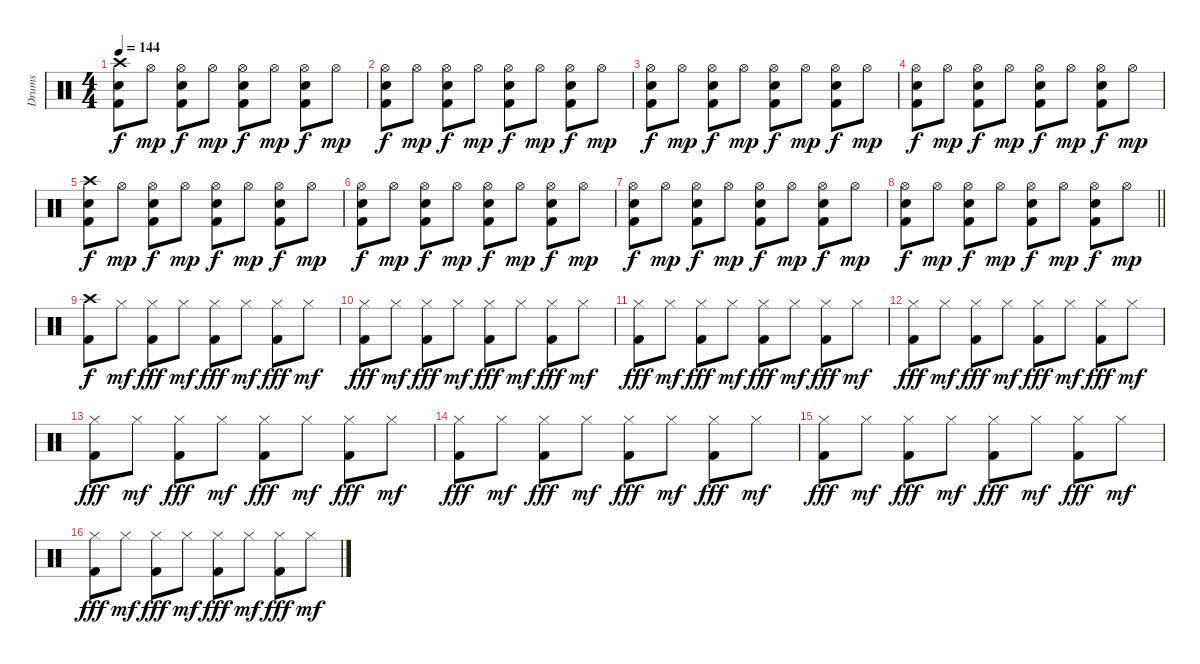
\track ("Drums" "Drums") {instrument percussion}
\staff {score}
\articulation defaults
\ts (4 4)
\tempo 144
\clef neutral
\ks c
("Crash high (hit)" "Snare (hit) 2" "Kick (hit) 2").8{dy f} "Hi-Hat (open)".8{dy mp} ("Hi-Hat (open)" "Snare (hit) 2" "Kick (hit) 2").8{dy f} "Hi-Hat (open)".8{dy mp} ("Hi-Hat (open)" "Snare (hit) 2" "Kick (hit) 2").8{dy f} "Hi-Hat (open)".8{dy mp} ("Hi-Hat (open)" "Snare (hit) 2" "Kick (hit) 2").8{dy f} "Hi-Hat (open)".8{dy mp} |
("Hi-Hat (open)" "Snare (hit) 2" "Kick (hit) 2").8{dy f} "Hi-Hat (open)".8{dy mp} ("Hi-Hat (open)" "Snare (hit) 2" "Kick (hit) 2").8{dy f} "Hi-Hat (open)".8{dy mp} ("Hi-Hat (open)" "Snare (hit) 2" "Kick (hit) 2").8{dy f} "Hi-Hat (open)".8{dy mp} ("Hi-Hat (open)" "Snare (hit) 2" "Kick (hit) 2").8{dy f} "Hi-Hat (open)".8{dy mp} |
("Hi-Hat (open)" "Snare (hit) 2" "Kick (hit) 2").8{dy f} "Hi-Hat (open)".8{dy mp} ("Hi-Hat (open)" "Snare (hit) 2" "Kick (hit) 2").8{dy f} "Hi-Hat (open)".8{dy mp} ("Hi-Hat (open)" "Snare (hit) 2" "Kick (hit) 2").8{dy f} "Hi-Hat (open)".8{dy mp} ("Hi-Hat (open)" "Snare (hit) 2" "Kick (hit) 2").8{dy f} "Hi-Hat (open)".8{dy mp} |
("Hi-Hat (open)" "Snare (hit) 2" "Kick (hit) 2").8{dy f} "Hi-Hat (open)".8{dy mp} ("Hi-Hat (open)" "Snare (hit) 2" "Kick (hit) 2").8{dy f} "Hi-Hat (open)".8{dy mp} ("Hi-Hat (open)" "Snare (hit) 2" "Kick (hit) 2").8{dy f} "Hi-Hat (open)".8{dy mp} ("Hi-Hat (open)" "Snare (hit) 2" "Kick (hit) 2").8{dy f} "Hi-Hat (open)".8{dy mp} |
("Crash high (hit)" "Snare (hit) 2" "Kick (hit) 2").8{dy f} "Hi-Hat (open)".8{dy mp} ("Hi-Hat (open)" "Snare (hit) 2" "Kick (hit) 2").8{dy f} "Hi-Hat (open)".8{dy mp} ("Hi-Hat (open)" "Snare (hit) 2" "Kick (hit) 2").8{dy f} "Hi-Hat (open)".8{dy mp} ("Hi-Hat (open)" "Snare (hit) 2" "Kick (hit) 2").8{dy f} "Hi-Hat (open)".8{dy mp} |
("Hi-Hat (open)" "Snare (hit) 2" "Kick (hit) 2").8{dy f} "Hi-Hat (open)".8{dy mp} ("Hi-Hat (open)" "Snare (hit) 2" "Kick (hit) 2").8{dy f} "Hi-Hat (open)".8{dy mp} ("Hi-Hat (open)" "Snare (hit) 2" "Kick (hit) 2").8{dy f} "Hi-Hat (open)".8{dy mp} ("Hi-Hat (open)" "Snare (hit) 2" "Kick (hit) 2").8{dy f} "Hi-Hat (open)".8{dy mp} |
("Hi-Hat (open)" "Snare (hit) 2" "Kick (hit) 2").8{dy f} "Hi-Hat (open)".8{dy mp} ("Hi-Hat (open)" "Snare (hit) 2" "Kick (hit) 2").8{dy f} "Hi-Hat (open)".8{dy mp} ("Hi-Hat (open)" "Snare (hit) 2" "Kick (hit) 2").8{dy f} "Hi-Hat (open)".8{dy mp} ("Hi-Hat (open)" "Snare (hit) 2" "Kick (hit) 2").8{dy f} "Hi-Hat (open)".8{dy mp} |
\barLineRight lightlight
("Hi-Hat (open)" "Snare (hit) 2" "Kick (hit) 2").8{dy f} "Hi-Hat (open)".8{dy mp} ("Hi-Hat (open)" "Snare (hit) 2" "Kick (hit) 2").8{dy f} "Hi-Hat (open)".8{dy mp} ("Hi-Hat (open)" "Snare (hit) 2" "Kick (hit) 2").8{dy f} "Hi-Hat (open)".8{dy mp} ("Hi-Hat (open)" "Snare (hit) 2" "Kick (hit) 2").8{dy f} "Hi-Hat (open)".8{dy mp} |
("Crash high (hit)" "Kick (hit) 2").8{dy f} "Hi-Hat (closed)".8{dy mf} ("Hi-Hat (closed)" "Kick (hit) 2").8{dy fff} "Hi-Hat (closed)".8{dy mf} ("Hi-Hat (closed)" "Kick (hit) 2").8{dy fff} "Hi-Hat (closed)".8{dy mf} ("Hi-Hat (closed)" "Kick (hit) 2").8{dy fff} "Hi-Hat (closed)".8{dy mf} |
("Hi-Hat (closed)" "Kick (hit) 2").8{dy fff} "Hi-Hat (closed)".8{dy mf} ("Hi-Hat (closed)" "Kick (hit) 2").8{dy fff} "Hi-Hat (closed)".8{dy mf} ("Hi-Hat (closed)" "Kick (hit) 2").8{dy fff} "Hi-Hat (closed)".8{dy mf} ("Hi-Hat (closed)" "Kick (hit) 2").8{dy fff} "Hi-Hat (closed)".8{dy mf} |
("Hi-Hat (closed)" "Kick (hit) 2").8{dy fff} "Hi-Hat (closed)".8{dy mf} ("Hi-Hat (closed)" "Kick (hit) 2").8{dy fff} "Hi-Hat (closed)".8{dy mf} ("Hi-Hat (closed)" "Kick (hit) 2").8{dy fff} "Hi-Hat (closed)".8{dy mf} ("Hi-Hat (closed)" "Kick (hit) 2").8{dy fff} "Hi-Hat (closed)".8{dy mf} |
("Hi-Hat (closed)" "Kick (hit) 2").8{dy fff} "Hi-Hat (closed)".8{dy mf} ("Hi-Hat (closed)" "Kick (hit) 2").8{dy fff} "Hi-Hat (closed)".8{dy mf} ("Hi-Hat (closed)" "Kick (hit) 2").8{dy fff} "Hi-Hat (closed)".8{dy mf} ("Hi-Hat (closed)" "Kick (hit) 2").8{dy fff} "Hi-Hat (closed)".8{dy mf} |
("Hi-Hat (closed)" "Kick (hit) 2").8{dy fff} "Hi-Hat (closed)".8{dy mf} ("Hi-Hat (closed)" "Kick (hit) 2").8{dy fff} "Hi-Hat (closed)".8{dy mf} ("Hi-Hat (closed)" "Kick (hit) 2").8{dy fff} "Hi-Hat (closed)".8{dy mf} ("Hi-Hat (closed)" "Kick (hit) 2").8{dy fff} "Hi-Hat (closed)".8{dy mf} |
("Hi-Hat (closed)" "Kick (hit) 2").8{dy fff} "Hi-Hat (closed)".8{dy mf} ("Hi-Hat (closed)" "Kick (hit) 2").8{dy fff} "Hi-Hat (closed)".8{dy mf} ("Hi-Hat (closed)" "Kick (hit) 2").8{dy fff} "Hi-Hat (closed)".8{dy mf} ("Hi-Hat (closed)" "Kick (hit) 2").8{dy fff} "Hi-Hat (closed)".8{dy mf} |
("Hi-Hat (closed)" "Kick (hit) 2").8{dy fff} "Hi-Hat (closed)".8{dy mf} ("Hi-Hat (closed)" "Kick (hit) 2").8{dy fff} "Hi-Hat (closed)".8{dy mf} ("Hi-Hat (closed)" "Kick (hit) 2").8{dy fff} "Hi-Hat (closed)".8{dy mf} ("Hi-Hat (closed)" "Kick (hit) 2").8{dy fff} "Hi-Hat (closed)".8{dy mf} |
("Hi-Hat (closed)" "Kick (hit) 2").8{dy fff} "Hi-Hat (closed)".8{dy mf} ("Hi-Hat (closed)" "Kick (hit) 2").8{dy fff} "Hi-Hat (closed)".8{dy mf} ("Hi-Hat (closed)" "Kick (hit) 2").8{dy fff} "Hi-Hat (closed)".8{dy mf} ("Hi-Hat (closed)" "Kick (hit) 2").8{dy fff} "Hi-Hat (closed)".8{dy mf}
